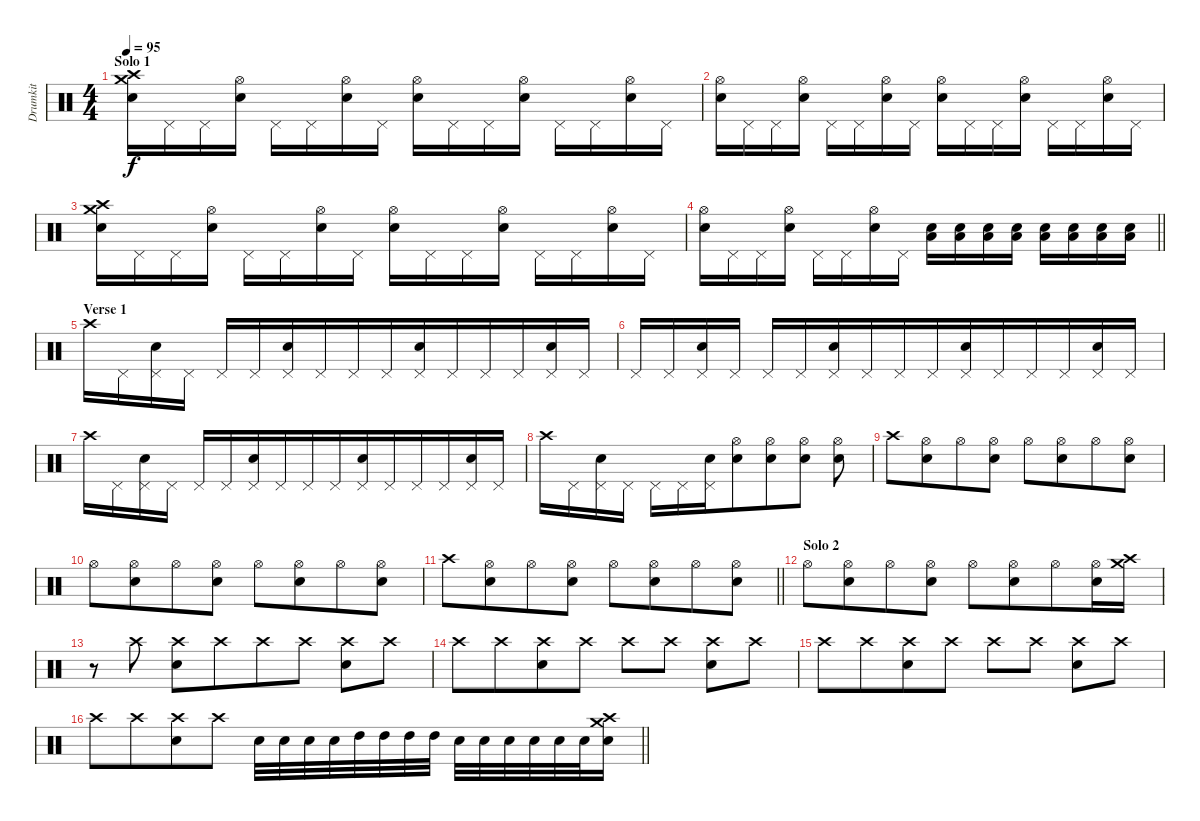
\track ("Drumkit" "Drumkit") {instrument percussion}
\staff {score}
\articulation defaults
\ts (4 4)
\section ("" "Solo 1")
\tempo 95
\clef neutral
\ks c
("Crash medium (hit)" "Crash high (hit)" "Electric Snare (hit)").16{dy f} "Pedal Hi-Hat (hit)".16 "Pedal Hi-Hat (hit)".16 ("Hi-Hat (open)" "Electric Snare (hit)").16 "Pedal Hi-Hat (hit)".16 "Pedal Hi-Hat (hit)".16 ("Hi-Hat (open)" "Electric Snare (hit)").16 "Pedal Hi-Hat (hit)".16 ("Hi-Hat (open)" "Electric Snare (hit)").16{beam merge} "Pedal Hi-Hat (hit)".16 "Pedal Hi-Hat (hit)".16 ("Hi-Hat (open)" "Electric Snare (hit)").16 "Pedal Hi-Hat (hit)".16 "Pedal Hi-Hat (hit)".16 ("Hi-Hat (open)" "Electric Snare (hit)").16 "Pedal Hi-Hat (hit)".16 |
("Hi-Hat (open)" "Electric Snare (hit)").16 "Pedal Hi-Hat (hit)".16 "Pedal Hi-Hat (hit)".16 ("Hi-Hat (open)" "Electric Snare (hit)").16 "Pedal Hi-Hat (hit)".16 "Pedal Hi-Hat (hit)".16 ("Hi-Hat (open)" "Electric Snare (hit)").16 "Pedal Hi-Hat (hit)".16 ("Hi-Hat (open)" "Electric Snare (hit)").16{beam merge} "Pedal Hi-Hat (hit)".16 "Pedal Hi-Hat (hit)".16 ("Hi-Hat (open)" "Electric Snare (hit)").16 "Pedal Hi-Hat (hit)".16 "Pedal Hi-Hat (hit)".16 ("Hi-Hat (open)" "Electric Snare (hit)").16 "Pedal Hi-Hat (hit)".16 |
("Crash medium (hit)" "Crash high (hit)" "Electric Snare (hit)").16 "Pedal Hi-Hat (hit)".16 "Pedal Hi-Hat (hit)".16 ("Hi-Hat (open)" "Electric Snare (hit)").16 "Pedal Hi-Hat (hit)".16 "Pedal Hi-Hat (hit)".16 ("Hi-Hat (open)" "Electric Snare (hit)").16 "Pedal Hi-Hat (hit)".16 ("Hi-Hat (open)" "Electric Snare (hit)").16{beam merge} "Pedal Hi-Hat (hit)".16 "Pedal Hi-Hat (hit)".16 ("Hi-Hat (open)" "Electric Snare (hit)").16 "Pedal Hi-Hat (hit)".16 "Pedal Hi-Hat (hit)".16 ("Hi-Hat (open)" "Electric Snare (hit)").16 "Pedal Hi-Hat (hit)".16 |
\barLineRight lightlight
("Hi-Hat (open)" "Electric Snare (hit)").16 "Pedal Hi-Hat (hit)".16 "Pedal Hi-Hat (hit)".16 ("Hi-Hat (open)" "Electric Snare (hit)").16 "Pedal Hi-Hat (hit)".16 "Pedal Hi-Hat (hit)".16 ("Hi-Hat (open)" "Electric Snare (hit)").16 "Pedal Hi-Hat (hit)".16 ("Low Floor Tom (hit)" "Electric Snare (hit)").16{beam merge} ("Low Floor Tom (hit)" "Electric Snare (hit)").16 ("Low Floor Tom (hit)" "Electric Snare (hit)").16 ("Low Floor Tom (hit)" "Electric Snare (hit)").16 ("Low Floor Tom (hit)" "Electric Snare (hit)").16 ("Low Floor Tom (hit)" "Electric Snare (hit)").16 ("Low Floor Tom (hit)" "Electric Snare (hit)").16 ("Low Floor Tom (hit)" "Electric Snare (hit)").16 |
\section ("" "Verse 1")
"Crash high (hit)".16 "Pedal Hi-Hat (hit)".16 ("Pedal Hi-Hat (hit)" "Electric Snare (hit)").16 "Pedal Hi-Hat (hit)".16 "Pedal Hi-Hat (hit)".16 "Pedal Hi-Hat (hit)".16{beam merge} ("Pedal Hi-Hat (hit)" "Electric Snare (hit)").16{beam merge} "Pedal Hi-Hat (hit)".16{beam merge} "Pedal Hi-Hat (hit)".16{beam merge} "Pedal Hi-Hat (hit)".16 ("Pedal Hi-Hat (hit)" "Electric Snare (hit)").16 "Pedal Hi-Hat (hit)".16{beam merge} "Pedal Hi-Hat (hit)".16 "Pedal Hi-Hat (hit)".16 ("Pedal Hi-Hat (hit)" "Electric Snare (hit)").16{beam merge} "Pedal Hi-Hat (hit)".16 |
"Pedal Hi-Hat (hit)".16 "Pedal Hi-Hat (hit)".16 ("Pedal Hi-Hat (hit)" "Electric Snare (hit)").16 "Pedal Hi-Hat (hit)".16 "Pedal Hi-Hat (hit)".16 "Pedal Hi-Hat (hit)".16{beam merge} ("Pedal Hi-Hat (hit)" "Electric Snare (hit)").16{beam merge} "Pedal Hi-Hat (hit)".16{beam merge} "Pedal Hi-Hat (hit)".16{beam merge} "Pedal Hi-Hat (hit)".16 ("Pedal Hi-Hat (hit)" "Electric Snare (hit)").16 "Pedal Hi-Hat (hit)".16{beam merge} "Pedal Hi-Hat (hit)".16 "Pedal Hi-Hat (hit)".16 ("Pedal Hi-Hat (hit)" "Electric Snare (hit)").16{beam merge} "Pedal Hi-Hat (hit)".16 |
"Crash high (hit)".16 "Pedal Hi-Hat (hit)".16 ("Pedal Hi-Hat (hit)" "Electric Snare (hit)").16 "Pedal Hi-Hat (hit)".16 "Pedal Hi-Hat (hit)".16 "Pedal Hi-Hat (hit)".16{beam merge} ("Pedal Hi-Hat (hit)" "Electric Snare (hit)").16{beam merge} "Pedal Hi-Hat (hit)".16{beam merge} "Pedal Hi-Hat (hit)".16{beam merge} "Pedal Hi-Hat (hit)".16 ("Pedal Hi-Hat (hit)" "Electric Snare (hit)").16 "Pedal Hi-Hat (hit)".16{beam merge} "Pedal Hi-Hat (hit)".16 "Pedal Hi-Hat (hit)".16 ("Pedal Hi-Hat (hit)" "Electric Snare (hit)").16{beam merge} "Pedal Hi-Hat (hit)".16 |
"Crash high (hit)".16 "Pedal Hi-Hat (hit)".16 ("Pedal Hi-Hat (hit)" "Electric Snare (hit)").16 "Pedal Hi-Hat (hit)".16 "Pedal Hi-Hat (hit)".16 "Pedal Hi-Hat (hit)".16{beam merge} ("Pedal Hi-Hat (hit)" "Electric Snare (hit)").16{beam merge} ("Hi-Hat (open)" "Electric Snare (hit)").8{beam merge} ("Hi-Hat (open)" "Electric Snare (hit)").8 ("Hi-Hat (open)" "Electric Snare (hit)").8 ("Hi-Hat (open)" "Electric Snare (hit)").8 |
"Crash high (hit)".8 ("Hi-Hat (open)" "Electric Snare (hit)").8{beam merge} "Hi-Hat (open)".8 ("Hi-Hat (open)" "Electric Snare (hit)").8 "Hi-Hat (open)".8 ("Hi-Hat (open)" "Electric Snare (hit)").8{beam merge} "Hi-Hat (open)".8{beam merge} ("Hi-Hat (open)" "Electric Snare (hit)").8 |
"Hi-Hat (open)".8 ("Hi-Hat (open)" "Electric Snare (hit)").8{beam merge} "Hi-Hat (open)".8 ("Hi-Hat (open)" "Electric Snare (hit)").8 "Hi-Hat (open)".8 ("Hi-Hat (open)" "Electric Snare (hit)").8{beam merge} "Hi-Hat (open)".8{beam merge} ("Hi-Hat (open)" "Electric Snare (hit)").8 |
\barLineRight lightlight "Crash high (hit)".8
("Hi-Hat (open)" "Electric Snare (hit)").8{beam merge} "Hi-Hat (open)".8 ("Hi-Hat (open)" "Electric Snare (hit)").8 "Hi-Hat (open)".8 ("Hi-Hat (open)" "Electric Snare (hit)").8{beam merge} "Hi-Hat (open)".8{beam merge} ("Hi-Hat (open)" "Electric Snare (hit)").8 |
\section ("" "Solo 2")
"Hi-Hat (open)".8 ("Hi-Hat (open)" "Electric Snare (hit)").8{beam merge} "Hi-Hat (open)".8 ("Hi-Hat (open)" "Electric Snare (hit)").8 "Hi-Hat (open)".8 ("Hi-Hat (open)" "Electric Snare (hit)").8{beam merge} "Hi-Hat (open)".8{beam merge} ("Hi-Hat (open)" "Electric Snare (hit)").16 ("Crash medium (hit)" "Crash high (hit)").16 |
r.8 "Crash high (hit)".8 ("Crash high (hit)" "Electric Snare (hit)").8 "Crash high (hit)".8{beam merge} "Crash high (hit)".8 "Crash high (hit)".8 ("Crash high (hit)" "Electric Snare (hit)").8 "Crash high (hit)".8 |
"Crash high (hit)".8{beam merge} "Crash high (hit)".8{beam merge} ("Crash high (hit)" "Electric Snare (hit)").8 "Crash high (hit)".8 "Crash high (hit)".8{beam merge} "Crash high (hit)".8 ("Crash high (hit)" "Electric Snare (hit)").8 "Crash high (hit)".8 |
"Crash high (hit)".8{beam merge} "Crash high (hit)".8{beam merge} ("Crash high (hit)" "Electric Snare (hit)").8 "Crash high (hit)".8 "Crash high (hit)".8{beam merge} "Crash high (hit)".8 ("Crash high (hit)" "Electric Snare (hit)").8 "Crash high (hit)".8 |
\barLineRight lightlight "Crash high (hit)".8{beam merge} "Crash high (hit)".8{beam merge}
("Crash high (hit)" "Electric Snare (hit)").8 "Crash high (hit)".8 "Electric Snare (hit)".32{beam merge} "Electric Snare (hit)".32 "Electric Snare (hit)".32 "Electric Snare (hit)".32 "High Tom (hit)".32 "High Tom (hit)".32 "High Tom (hit)".32 "High Tom (hit)".32 "Electric Snare (hit)".32 "Electric Snare (hit)".32 "Electric Snare (hit)".32 "Electric Snare (hit)".32 "Electric Snare (hit)".32 "Electric Snare (hit)".32 ("Crash medium (hit)" "Crash high (hit)" "Electric Snare (hit)").16
